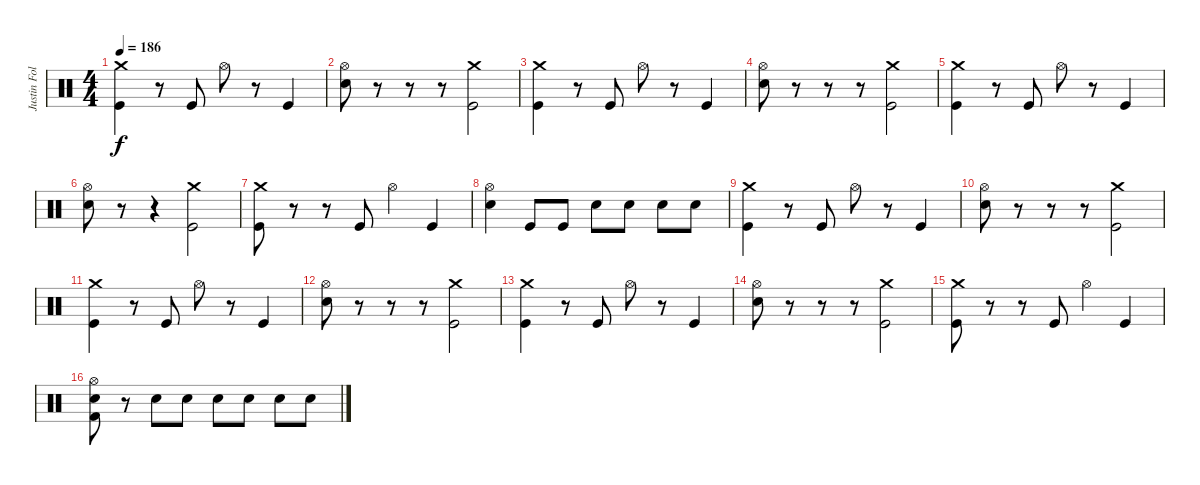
\track ("Justin Foley" "Justin Fol") {instrument percussion}
\staff {score}
\articulation defaults
\ts (4 4)
\tempo 186
\clef neutral
\ks c
("Crash medium (hit)" "Kick (hit)").4{dy f} r.8 "Kick (hit)".8 "Hi-Hat (open)".8 r.8 "Kick (hit)".4 |
("Hi-Hat (open)" "Electric Snare (hit)").8 r.8 r.8 r.8 ("Crash medium (hit)" "Kick (hit)").2 |
("Crash medium (hit)" "Kick (hit)").4 r.8 "Kick (hit)".8 "Hi-Hat (open)".8 r.8 "Kick (hit)".4 |
("Hi-Hat (open)" "Electric Snare (hit)").8 r.8 r.8 r.8 ("Crash medium (hit)" "Kick (hit)").2 |
("Crash medium (hit)" "Kick (hit)").4 r.8 "Kick (hit)".8 "Hi-Hat (open)".8 r.8 "Kick (hit)".4 |
("Hi-Hat (open)" "Electric Snare (hit)").8 r.8 r.4 ("Crash medium (hit)" "Kick (hit)").2 |
("Crash medium (hit)" "Kick (hit)").8 r.8 r.8 "Kick (hit)".8 "Hi-Hat (open)".4 "Kick (hit)".4 |
("Hi-Hat (open)" "Electric Snare (hit)").4 "Kick (hit)".8 "Kick (hit)".8 "Electric Snare (hit)".8 "Electric Snare (hit)".8 "Electric Snare (hit)".8 "Electric Snare (hit)".8 |
("Crash medium (hit)" "Kick (hit)").4 r.8 "Kick (hit)".8 "Hi-Hat (open)".8 r.8 "Kick (hit)".4 |
("Hi-Hat (open)" "Electric Snare (hit)").8 r.8 r.8 r.8 ("Crash medium (hit)" "Kick (hit)").2 |
("Crash medium (hit)" "Kick (hit)").4 r.8 "Kick (hit)".8 "Hi-Hat (open)".8 r.8 "Kick (hit)".4 |
("Hi-Hat (open)" "Electric Snare (hit)").8 r.8 r.8 r.8 ("Crash medium (hit)" "Kick (hit)").2 |
("Crash medium (hit)" "Kick (hit)").4 r.8 "Kick (hit)".8 "Hi-Hat (open)".8 r.8 "Kick (hit)".4 |
("Hi-Hat (open)" "Electric Snare (hit)").8 r.8 r.8 r.8 ("Crash medium (hit)" "Kick (hit)").2 |
("Crash medium (hit)" "Kick (hit)").8 r.8 r.8 "Kick (hit)".8 "Hi-Hat (open)".4 "Kick (hit)".4 |
("Hi-Hat (open)" "Electric Snare (hit)" "Kick (hit) 2").8 r.8 "Electric Snare (hit)".8 "Electric Snare (hit)".8 "Electric Snare (hit)".8 "Electric Snare (hit)".8 "Electric Snare (hit)".8 "Electric Snare (hit)".8
